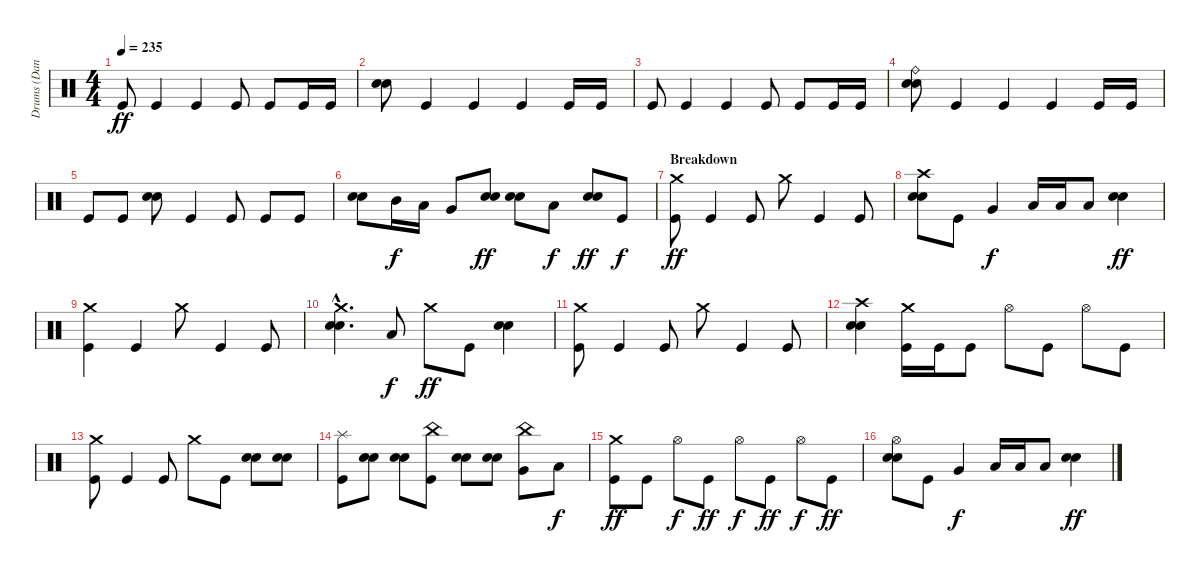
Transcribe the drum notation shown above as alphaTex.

\track ("Drums (Dan)" "Drums (Dan") {instrument percussion}
\staff {score}
\articulation defaults
\ts (4 4)
\tempo 235
\clef neutral
\ks c "Kick (hit)".8{dy ff} "Kick (hit)".4 "Kick (hit)".4 "Kick (hit)".8 "Kick (hit)".8 "Kick (hit)".16 "Kick (hit)".16
|
("Electric Snare (hit)" "Electric Snare (hit)").8 "Kick (hit)".4 "Kick (hit)".4 "Kick (hit)".4 "Kick (hit)".16 "Kick (hit)".16 |
"Kick (hit)".8 "Kick (hit)".4 "Kick (hit)".4 "Kick (hit)".8 "Kick (hit)".8 "Kick (hit)".16 "Kick (hit)".16 |
("Electric Snare (hit)" "Electric Snare (hit)" "Ride (bell)").8 "Kick (hit)".4 "Kick (hit)".4 "Kick (hit)".4 "Kick (hit)".16 "Kick (hit)".16 |
"Kick (hit)".8 "Kick (hit)".8 ("Electric Snare (hit)" "Electric Snare (hit)").8 "Kick (hit)".4 "Kick (hit)".8 "Kick (hit)".8 "Kick (hit)".8 |
("Electric Snare (hit)" "Electric Snare (hit)").8 "Mid Tom (hit)".16{dy f} "Low Tom (hit)".16 "Very Low Tom (hit)".8 ("Electric Snare (hit)" "Electric Snare (hit)").8{dy ff} ("Electric Snare (hit)" "Electric Snare (hit)").8 "Low Tom (hit)".8{dy f} ("Electric Snare (hit)" "Electric Snare (hit)").8{dy ff} "Kick (hit)".8{dy f} |
\section ("" "Breakdown")
("Kick (hit)" "Crash medium (hit)").8{dy ff} "Kick (hit)".4 "Kick (hit)".8 "Crash medium (hit)".8 "Kick (hit)".4 "Kick (hit)".8 |
("Electric Snare (hit)" "Electric Snare (hit)" "Crash high (hit)").8 "Kick (hit)".8 "Very Low Tom (hit)".4{dy f} "Low Floor Tom (hit)".16 "Low Floor Tom (hit)".16 "Low Floor Tom (hit)".8 ("Electric Snare (hit)" "Electric Snare (hit)").4{dy ff} |
("Kick (hit)" "Crash medium (hit)").4 "Kick (hit)".4 "Crash medium (hit)".8 "Kick (hit)".4 "Kick (hit)".8 |
("Electric Snare (hit)"{hac} "Electric Snare (hit)"{hac} "Crash medium (hit)"{hac}).4{d} "Low Floor Tom (hit)".8{dy f} "Crash medium (hit)".8{dy ff} "Kick (hit)".8 ("Electric Snare (hit)" "Electric Snare (hit)").4 |
("Kick (hit)" "Crash medium (hit)").8 "Kick (hit)".4 "Kick (hit)".8 "Crash medium (hit)".8 "Kick (hit)".4 "Kick (hit)".8 |
("Electric Snare (hit)" "Electric Snare (hit)" "Crash high (hit)").4 ("Kick (hit)" "Crash medium (hit)").16 "Kick (hit)".16 "Kick (hit)".8 "Hi-Hat (open)".8 "Kick (hit)".8 "Hi-Hat (open)".8 "Kick (hit)".8 |
("Kick (hit)" "Crash medium (hit)").8 "Kick (hit)".4 "Kick (hit)".8 "Crash medium (hit)".8 "Kick (hit)".8 ("Electric Snare (hit)" "Electric Snare (hit)").8 ("Electric Snare (hit)" "Electric Snare (hit)").8 |
("Kick (hit)" "Splash (hit)").8 ("Electric Snare (hit)" "Electric Snare (hit)").8 ("Electric Snare (hit)" "Electric Snare (hit)").8 ("Kick (hit)" "China (hit)").8 ("Electric Snare (hit)" "Electric Snare (hit)").8 ("Electric Snare (hit)" "Electric Snare (hit)").8 ("Very Low Tom (hit)" "China (hit)").8 "Low Floor Tom (hit)".8{dy f} |
("Kick (hit)" "Crash medium (hit)").8{dy ff} "Kick (hit)".8 "Hi-Hat (open)".8{dy f} "Kick (hit)".8{dy ff} "Hi-Hat (open)".8{dy f} "Kick (hit)".8{dy ff} "Hi-Hat (open)".8{dy f} "Kick (hit)".8{dy ff} |
("Electric Snare (hit)" "Electric Snare (hit)" "Hi-Hat (open)").8 "Kick (hit)".8 "Very Low Tom (hit)".4{dy f} "Low Floor Tom (hit)".16 "Low Floor Tom (hit)".16 "Low Floor Tom (hit)".8 ("Electric Snare (hit)" "Electric Snare (hit)").4{dy ff}
